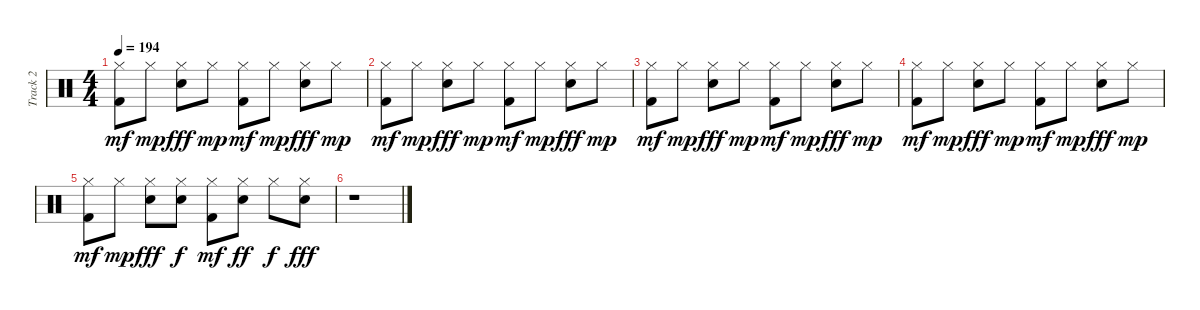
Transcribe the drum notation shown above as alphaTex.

\track ("Track 2" "Track 2") {instrument percussion}
\staff {score}
\articulation defaults
\ts (4 4)
\tempo 194
\clef neutral
\ks c
("Hi-Hat (closed)" "Kick (hit) 2").8{dy mf} "Hi-Hat (closed)".8{dy mp} ("Hi-Hat (closed)" "Snare (hit)").8{dy fff} "Hi-Hat (closed)".8{dy mp} ("Hi-Hat (closed)" "Kick (hit) 2").8{dy mf} "Hi-Hat (closed)".8{dy mp} ("Hi-Hat (closed)" "Snare (hit)").8{dy fff} "Hi-Hat (closed)".8{dy mp} |
("Hi-Hat (closed)" "Kick (hit) 2").8{dy mf} "Hi-Hat (closed)".8{dy mp} ("Hi-Hat (closed)" "Snare (hit)").8{dy fff} "Hi-Hat (closed)".8{dy mp} ("Hi-Hat (closed)" "Kick (hit) 2").8{dy mf} "Hi-Hat (closed)".8{dy mp} ("Hi-Hat (closed)" "Snare (hit)").8{dy fff} "Hi-Hat (closed)".8{dy mp} |
("Hi-Hat (closed)" "Kick (hit) 2").8{dy mf} "Hi-Hat (closed)".8{dy mp} ("Hi-Hat (closed)" "Snare (hit)").8{dy fff} "Hi-Hat (closed)".8{dy mp} ("Hi-Hat (closed)" "Kick (hit) 2").8{dy mf} "Hi-Hat (closed)".8{dy mp} ("Hi-Hat (closed)" "Snare (hit)").8{dy fff} "Hi-Hat (closed)".8{dy mp} |
("Hi-Hat (closed)" "Kick (hit) 2").8{dy mf} "Hi-Hat (closed)".8{dy mp} ("Hi-Hat (closed)" "Snare (hit)").8{dy fff} "Hi-Hat (closed)".8{dy mp} ("Hi-Hat (closed)" "Kick (hit) 2").8{dy mf} "Hi-Hat (closed)".8{dy mp} ("Hi-Hat (closed)" "Snare (hit)").8{dy fff} "Hi-Hat (closed)".8{dy mp} |
("Hi-Hat (closed)" "Kick (hit) 2").8{dy mf} "Hi-Hat (closed)".8{dy mp} ("Hi-Hat (closed)" "Snare (hit)").8{dy fff} ("Hi-Hat (closed)" "Snare (hit)").8{dy f} ("Hi-Hat (closed)" "Kick (hit) 2").8{dy mf} ("Hi-Hat (closed)" "Snare (hit)").8{dy ff} "Hi-Hat (closed)".8{dy f} ("Hi-Hat (closed)" "Snare (hit)").8{dy fff} |
r.1
